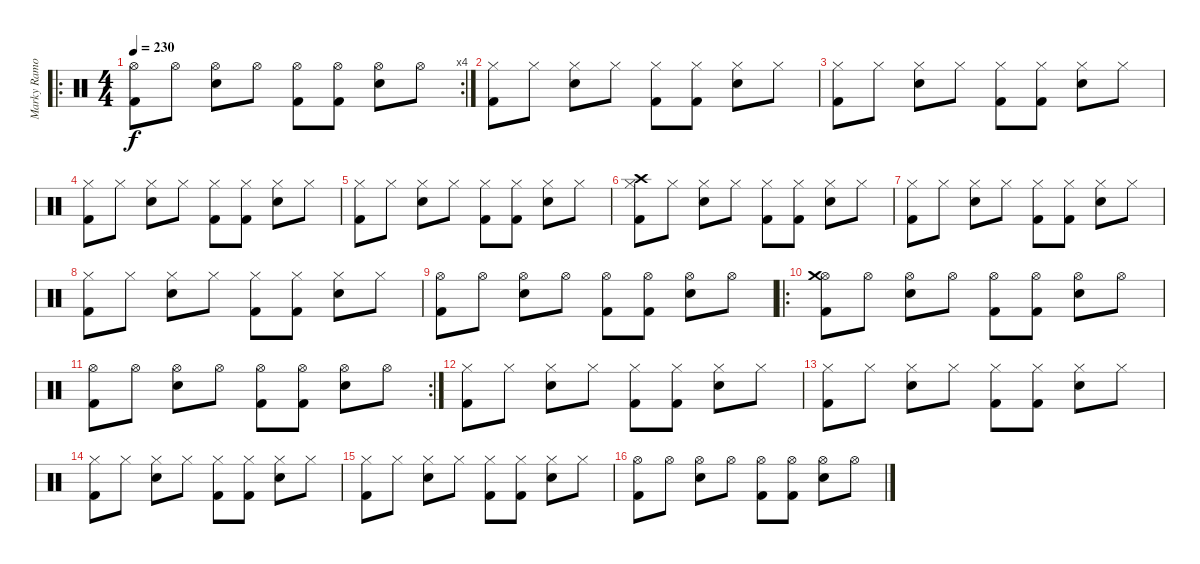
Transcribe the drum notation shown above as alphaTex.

\track ("Marky Ramone" "Marky Ramo") {instrument percussion}
\staff {score}
\articulation defaults
\ro
\rc 4
\ts (4 4)
\tempo 230
\clef neutral
\ks c
("Hi-Hat (open)" "Kick (hit) 2").8{dy f} "Hi-Hat (open)".8 ("Hi-Hat (open)" "Electric Snare (hit)").8 "Hi-Hat (open)".8 ("Hi-Hat (open)" "Kick (hit) 2").8 ("Hi-Hat (open)" "Kick (hit) 2").8 ("Hi-Hat (open)" "Electric Snare (hit)").8 "Hi-Hat (open)".8 |
("Hi-Hat (closed)" "Kick (hit) 2").8 "Hi-Hat (closed)".8 ("Hi-Hat (closed)" "Electric Snare (hit)").8 "Hi-Hat (closed)".8 ("Hi-Hat (closed)" "Kick (hit) 2").8 ("Hi-Hat (closed)" "Kick (hit) 2").8 ("Hi-Hat (closed)" "Electric Snare (hit)").8 "Hi-Hat (closed)".8 |
("Hi-Hat (closed)" "Kick (hit) 2").8 "Hi-Hat (closed)".8 ("Hi-Hat (closed)" "Electric Snare (hit)").8 "Hi-Hat (closed)".8 ("Hi-Hat (closed)" "Kick (hit) 2").8 ("Hi-Hat (closed)" "Kick (hit) 2").8 ("Hi-Hat (closed)" "Electric Snare (hit)").8 "Hi-Hat (closed)".8 |
("Hi-Hat (closed)" "Kick (hit) 2").8 "Hi-Hat (closed)".8 ("Hi-Hat (closed)" "Electric Snare (hit)").8 "Hi-Hat (closed)".8 ("Hi-Hat (closed)" "Kick (hit) 2").8 ("Hi-Hat (closed)" "Kick (hit) 2").8 ("Hi-Hat (closed)" "Electric Snare (hit)").8 "Hi-Hat (closed)".8 |
("Hi-Hat (closed)" "Kick (hit) 2").8 "Hi-Hat (closed)".8 ("Hi-Hat (closed)" "Electric Snare (hit)").8 "Hi-Hat (closed)".8 ("Hi-Hat (closed)" "Kick (hit) 2").8 ("Hi-Hat (closed)" "Kick (hit) 2").8 ("Hi-Hat (closed)" "Electric Snare (hit)").8 "Hi-Hat (closed)".8 |
("Hi-Hat (closed)" "Kick (hit) 2" "Crash high (hit)").8 "Hi-Hat (closed)".8 ("Hi-Hat (closed)" "Electric Snare (hit)").8 "Hi-Hat (closed)".8 ("Hi-Hat (closed)" "Kick (hit) 2").8 ("Hi-Hat (closed)" "Kick (hit) 2").8 ("Hi-Hat (closed)" "Electric Snare (hit)").8 "Hi-Hat (closed)".8 |
("Hi-Hat (closed)" "Kick (hit) 2").8 "Hi-Hat (closed)".8 ("Hi-Hat (closed)" "Electric Snare (hit)").8 "Hi-Hat (closed)".8 ("Hi-Hat (closed)" "Kick (hit) 2").8 ("Hi-Hat (closed)" "Kick (hit) 2").8 ("Hi-Hat (closed)" "Electric Snare (hit)").8 "Hi-Hat (closed)".8 |
("Hi-Hat (closed)" "Kick (hit) 2").8 "Hi-Hat (closed)".8 ("Hi-Hat (closed)" "Electric Snare (hit)").8 "Hi-Hat (closed)".8 ("Hi-Hat (closed)" "Kick (hit) 2").8 ("Hi-Hat (closed)" "Kick (hit) 2").8 ("Hi-Hat (closed)" "Electric Snare (hit)").8 "Hi-Hat (closed)".8 |
("Hi-Hat (open)" "Kick (hit) 2").8 "Hi-Hat (open)".8 ("Hi-Hat (open)" "Electric Snare (hit)").8 "Hi-Hat (open)".8 ("Hi-Hat (open)" "Kick (hit) 2").8 ("Hi-Hat (open)" "Kick (hit) 2").8 ("Hi-Hat (open)" "Electric Snare (hit)").8 "Hi-Hat (open)".8 |
\ro
("Hi-Hat (open)" "Kick (hit) 2" "Crash medium (hit)").8 "Hi-Hat (open)".8 ("Hi-Hat (open)" "Electric Snare (hit)").8 "Hi-Hat (open)".8 ("Hi-Hat (open)" "Kick (hit) 2").8 ("Hi-Hat (open)" "Kick (hit) 2").8 ("Hi-Hat (open)" "Electric Snare (hit)").8 "Hi-Hat (open)".8 |
\rc 2
("Hi-Hat (open)" "Kick (hit) 2").8 "Hi-Hat (open)".8 ("Hi-Hat (open)" "Electric Snare (hit)").8 "Hi-Hat (open)".8 ("Hi-Hat (open)" "Kick (hit) 2").8 ("Hi-Hat (open)" "Kick (hit) 2").8 ("Hi-Hat (open)" "Electric Snare (hit)").8 "Hi-Hat (open)".8 |
("Hi-Hat (closed)" "Kick (hit) 2").8 "Hi-Hat (closed)".8 ("Hi-Hat (closed)" "Electric Snare (hit)").8 "Hi-Hat (closed)".8 ("Hi-Hat (closed)" "Kick (hit) 2").8 ("Hi-Hat (closed)" "Kick (hit) 2").8 ("Hi-Hat (closed)" "Electric Snare (hit)").8 "Hi-Hat (closed)".8 |
("Hi-Hat (closed)" "Kick (hit) 2").8 "Hi-Hat (closed)".8 ("Hi-Hat (closed)" "Electric Snare (hit)").8 "Hi-Hat (closed)".8 ("Hi-Hat (closed)" "Kick (hit) 2").8 ("Hi-Hat (closed)" "Kick (hit) 2").8 ("Hi-Hat (closed)" "Electric Snare (hit)").8 "Hi-Hat (closed)".8 |
("Hi-Hat (closed)" "Kick (hit) 2").8 "Hi-Hat (closed)".8 ("Hi-Hat (closed)" "Electric Snare (hit)").8 "Hi-Hat (closed)".8 ("Hi-Hat (closed)" "Kick (hit) 2").8 ("Hi-Hat (closed)" "Kick (hit) 2").8 ("Hi-Hat (closed)" "Electric Snare (hit)").8 "Hi-Hat (closed)".8 |
("Hi-Hat (closed)" "Kick (hit) 2").8 "Hi-Hat (closed)".8 ("Hi-Hat (closed)" "Electric Snare (hit)").8 "Hi-Hat (closed)".8 ("Hi-Hat (closed)" "Kick (hit) 2").8 ("Hi-Hat (closed)" "Kick (hit) 2").8 ("Hi-Hat (closed)" "Electric Snare (hit)").8 "Hi-Hat (closed)".8 |
("Hi-Hat (open)" "Kick (hit) 2").8 "Hi-Hat (open)".8 ("Hi-Hat (open)" "Electric Snare (hit)").8 "Hi-Hat (open)".8 ("Hi-Hat (open)" "Kick (hit) 2").8 ("Hi-Hat (open)" "Kick (hit) 2").8 ("Hi-Hat (open)" "Electric Snare (hit)").8 "Hi-Hat (open)".8
